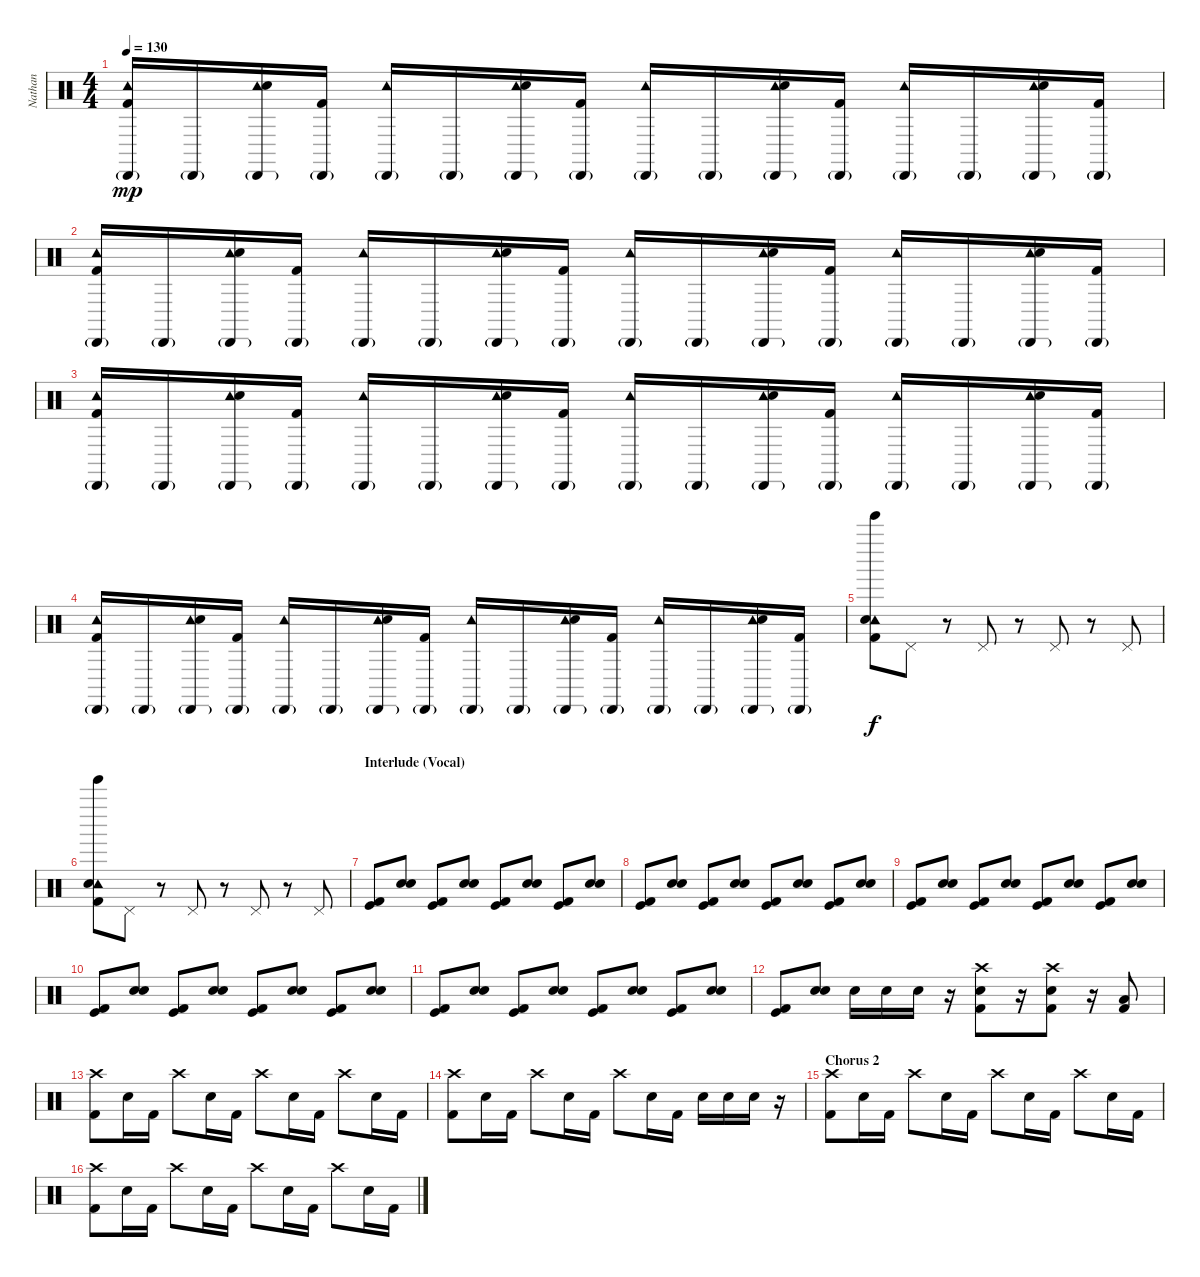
\track ("Nathan" "Nathan") {instrument percussion}
\staff {score}
\articulation defaults
\ts (4 4)
\tempo 130
\clef neutral
\ks c
("Cabasa (hit)"{g} "Tambourine (hit)" "Kick (hit) 2").16{dy mp} "Cabasa (hit)"{g}.16 ("Cabasa (hit)"{g} "Tambourine (hit)" "Snare (hit) 2").16 ("Cabasa (hit)"{g} "Kick (hit) 2").16 ("Cabasa (hit)"{g} "Tambourine (hit)").16 "Cabasa (hit)"{g}.16 ("Cabasa (hit)"{g} "Tambourine (hit)" "Snare (hit) 2").16 ("Cabasa (hit)"{g} "Kick (hit) 2").16 ("Cabasa (hit)"{g} "Tambourine (hit)").16 "Cabasa (hit)"{g}.16 ("Cabasa (hit)"{g} "Tambourine (hit)" "Snare (hit) 2").16 ("Cabasa (hit)"{g} "Kick (hit) 2").16 ("Cabasa (hit)"{g} "Tambourine (hit)").16 "Cabasa (hit)"{g}.16 ("Cabasa (hit)"{g} "Tambourine (hit)" "Snare (hit) 2").16 ("Cabasa (hit)"{g} "Kick (hit) 2").16 |
("Cabasa (hit)"{g} "Tambourine (hit)" "Kick (hit) 2").16 "Cabasa (hit)"{g}.16 ("Cabasa (hit)"{g} "Tambourine (hit)" "Snare (hit) 2").16 ("Cabasa (hit)"{g} "Kick (hit) 2").16 ("Cabasa (hit)"{g} "Tambourine (hit)").16 "Cabasa (hit)"{g}.16 ("Cabasa (hit)"{g} "Tambourine (hit)" "Snare (hit) 2").16 ("Cabasa (hit)"{g} "Kick (hit) 2").16 ("Cabasa (hit)"{g} "Tambourine (hit)").16 "Cabasa (hit)"{g}.16 ("Cabasa (hit)"{g} "Tambourine (hit)" "Snare (hit) 2").16 ("Cabasa (hit)"{g} "Kick (hit) 2").16 ("Cabasa (hit)"{g} "Tambourine (hit)").16 "Cabasa (hit)"{g}.16 ("Cabasa (hit)"{g} "Tambourine (hit)" "Snare (hit) 2").16 ("Cabasa (hit)"{g} "Kick (hit) 2").16 |
("Cabasa (hit)"{g} "Tambourine (hit)" "Kick (hit) 2").16 "Cabasa (hit)"{g}.16 ("Cabasa (hit)"{g} "Tambourine (hit)" "Snare (hit) 2").16 ("Cabasa (hit)"{g} "Kick (hit) 2").16 ("Cabasa (hit)"{g} "Tambourine (hit)").16 "Cabasa (hit)"{g}.16 ("Cabasa (hit)"{g} "Tambourine (hit)" "Snare (hit) 2").16 ("Cabasa (hit)"{g} "Kick (hit) 2").16 ("Cabasa (hit)"{g} "Tambourine (hit)").16 "Cabasa (hit)"{g}.16 ("Cabasa (hit)"{g} "Tambourine (hit)" "Snare (hit) 2").16 ("Cabasa (hit)"{g} "Kick (hit) 2").16 ("Cabasa (hit)"{g} "Tambourine (hit)").16 "Cabasa (hit)"{g}.16 ("Cabasa (hit)"{g} "Tambourine (hit)" "Snare (hit) 2").16 ("Cabasa (hit)"{g} "Kick (hit) 2").16 |
("Cabasa (hit)"{g} "Tambourine (hit)" "Kick (hit) 2").16 "Cabasa (hit)"{g}.16 ("Cabasa (hit)"{g} "Tambourine (hit)" "Snare (hit) 2").16 ("Cabasa (hit)"{g} "Kick (hit) 2").16 ("Cabasa (hit)"{g} "Tambourine (hit)").16 "Cabasa (hit)"{g}.16 ("Cabasa (hit)"{g} "Tambourine (hit)" "Snare (hit) 2").16 ("Cabasa (hit)"{g} "Kick (hit) 2").16 ("Cabasa (hit)"{g} "Tambourine (hit)").16 "Cabasa (hit)"{g}.16 ("Cabasa (hit)"{g} "Tambourine (hit)" "Snare (hit) 2").16 ("Cabasa (hit)"{g} "Kick (hit) 2").16 ("Cabasa (hit)"{g} "Tambourine (hit)").16 "Cabasa (hit)"{g}.16 ("Cabasa (hit)"{g} "Tambourine (hit)" "Snare (hit) 2").16 ("Cabasa (hit)"{g} "Kick (hit) 2").16 |
("Tambourine (hit)" "Tinkle Bell (hit)" "Snare (hit) 2" "Kick (hit) 2").8{dy f} "Pedal Hi-Hat (hit)".8 r.8 "Pedal Hi-Hat (hit)".8 r.8 "Pedal Hi-Hat (hit)".8 r.8 "Pedal Hi-Hat (hit)".8 |
("Tambourine (hit)" "Tinkle Bell (hit)" "Snare (hit) 2" "Kick (hit) 2").8 "Pedal Hi-Hat (hit)".8 r.8 "Pedal Hi-Hat (hit)".8 r.8 "Pedal Hi-Hat (hit)".8 r.8 "Pedal Hi-Hat (hit)".8 |
\section ("" "Interlude (Vocal)")
("Kick (hit)" "Kick (hit) 2").8 ("Hand Clap (hit)" "Hand Clap (hit)").8 ("Kick (hit)" "Kick (hit) 2").8 ("Hand Clap (hit)" "Hand Clap (hit)").8 ("Kick (hit)" "Kick (hit) 2").8 ("Hand Clap (hit)" "Hand Clap (hit)").8 ("Kick (hit)" "Kick (hit) 2").8 ("Hand Clap (hit)" "Hand Clap (hit)").8 |
("Kick (hit)" "Kick (hit) 2").8 ("Hand Clap (hit)" "Hand Clap (hit)").8 ("Kick (hit)" "Kick (hit) 2").8 ("Hand Clap (hit)" "Hand Clap (hit)").8 ("Kick (hit)" "Kick (hit) 2").8 ("Hand Clap (hit)" "Hand Clap (hit)").8 ("Kick (hit)" "Kick (hit) 2").8 ("Hand Clap (hit)" "Hand Clap (hit)").8 |
("Kick (hit)" "Kick (hit) 2").8 ("Hand Clap (hit)" "Hand Clap (hit)").8 ("Kick (hit)" "Kick (hit) 2").8 ("Hand Clap (hit)" "Hand Clap (hit)").8 ("Kick (hit)" "Kick (hit) 2").8 ("Hand Clap (hit)" "Hand Clap (hit)").8 ("Kick (hit)" "Kick (hit) 2").8 ("Hand Clap (hit)" "Hand Clap (hit)").8 |
("Kick (hit)" "Kick (hit) 2").8 ("Hand Clap (hit)" "Hand Clap (hit)").8 ("Kick (hit)" "Kick (hit) 2").8 ("Hand Clap (hit)" "Hand Clap (hit)").8 ("Kick (hit)" "Kick (hit) 2").8 ("Hand Clap (hit)" "Hand Clap (hit)").8 ("Kick (hit)" "Kick (hit) 2").8 ("Hand Clap (hit)" "Hand Clap (hit)").8 |
("Kick (hit)" "Kick (hit) 2").8 ("Hand Clap (hit)" "Hand Clap (hit)").8 ("Kick (hit)" "Kick (hit) 2").8 ("Hand Clap (hit)" "Hand Clap (hit)").8 ("Kick (hit)" "Kick (hit) 2").8 ("Hand Clap (hit)" "Hand Clap (hit)").8 ("Kick (hit)" "Kick (hit) 2").8 ("Hand Clap (hit)" "Hand Clap (hit)").8 |
("Kick (hit)" "Kick (hit) 2").8 ("Hand Clap (hit)" "Hand Clap (hit)").8 "Snare (hit) 2".16 "Snare (hit) 2".16 "Snare (hit) 2".16 r.16 ("Crash high (hit)" "Snare (hit) 2" "Kick (hit) 2").8 r.16 ("Crash high (hit)" "Snare (hit) 2" "Kick (hit) 2").8 r.16 ("Low Floor Tom (hit)" "Kick (hit) 2").8 |
("Crash high (hit)" "Kick (hit) 2").8 "Snare (hit) 2".16 "Kick (hit) 2".16 "Crash high (hit)".8 "Snare (hit) 2".16 "Kick (hit) 2".16 "Crash high (hit)".8 "Snare (hit) 2".16 "Kick (hit) 2".16 "Crash high (hit)".8 "Snare (hit) 2".16 "Kick (hit) 2".16 |
("Crash high (hit)" "Kick (hit) 2").8 "Snare (hit) 2".16 "Kick (hit) 2".16 "Crash high (hit)".8 "Snare (hit) 2".16 "Kick (hit) 2".16 "Crash high (hit)".8 "Snare (hit) 2".16 "Kick (hit) 2".16 "Snare (hit) 2".16 "Snare (hit) 2".16 "Snare (hit) 2".16 r.16 |
\section ("" "Chorus 2")
("Crash high (hit)" "Kick (hit) 2").8 "Snare (hit) 2".16 "Kick (hit) 2".16 "Crash high (hit)".8 "Snare (hit) 2".16 "Kick (hit) 2".16 "Crash high (hit)".8 "Snare (hit) 2".16 "Kick (hit) 2".16 "Crash high (hit)".8 "Snare (hit) 2".16 "Kick (hit) 2".16 |
("Crash high (hit)" "Kick (hit) 2").8 "Snare (hit) 2".16 "Kick (hit) 2".16 "Crash high (hit)".8 "Snare (hit) 2".16 "Kick (hit) 2".16 "Crash high (hit)".8 "Snare (hit) 2".16 "Kick (hit) 2".16 "Crash high (hit)".8 "Snare (hit) 2".16 "Kick (hit) 2".16
